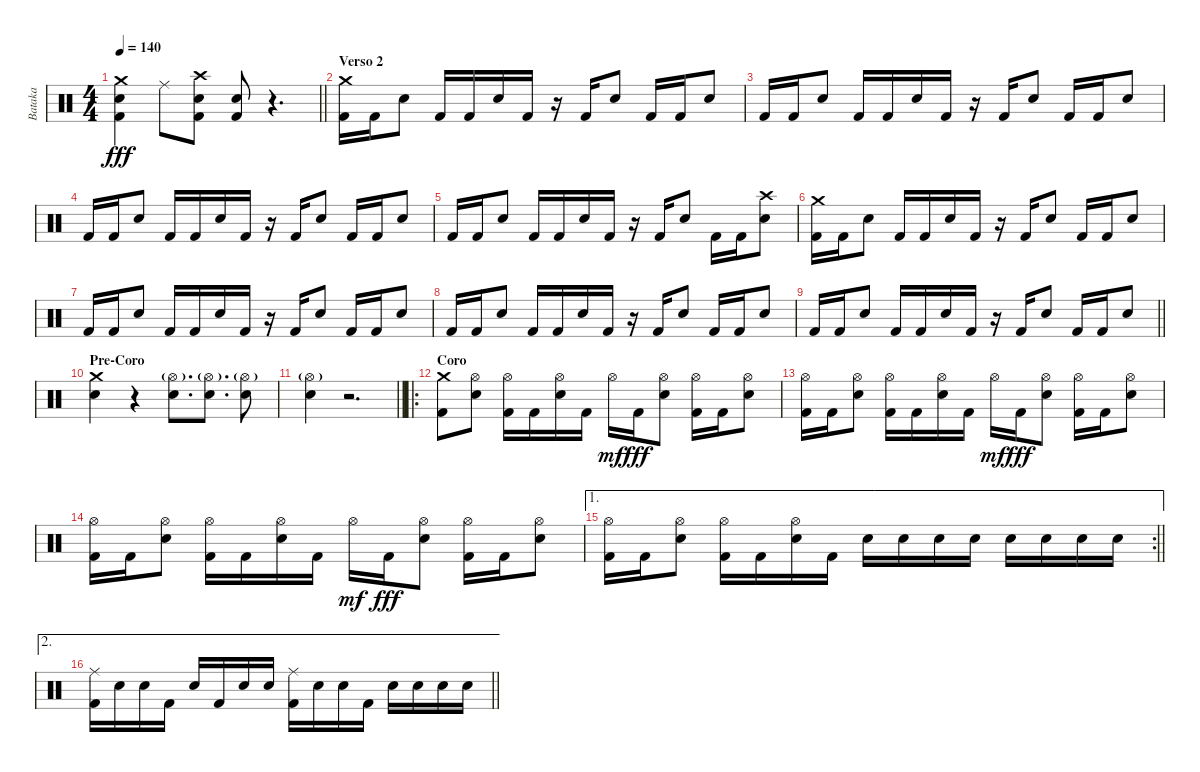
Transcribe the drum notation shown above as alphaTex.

\track ("Bataka" "Bataka") {instrument percussion}
\staff {score}
\articulation defaults
\ts (4 4)
\tempo 140
\clef neutral
\barLineRight lightlight
\ks c
("Crash medium (hit)" "Electric Snare (hit)" "Kick (hit) 2").4{dy fff} "Ride (middle)".8 ("Crash high (hit)" "Electric Snare (hit)" "Kick (hit) 2").8 ("Electric Snare (hit)" "Kick (hit) 2").8 r.4{d} |
\section ("" "Verso 2")
("Crash medium (hit)" "Kick (hit) 2").16 "Kick (hit) 2".16 "Electric Snare (hit)".8 "Kick (hit) 2".16 "Kick (hit) 2".16 "Electric Snare (hit)".16 "Kick (hit) 2".16 r.16 "Kick (hit) 2".16 "Electric Snare (hit)".8 "Kick (hit) 2".16 "Kick (hit) 2".16 "Electric Snare (hit)".8 |
"Kick (hit) 2".16 "Kick (hit) 2".16 "Electric Snare (hit)".8 "Kick (hit) 2".16 "Kick (hit) 2".16 "Electric Snare (hit)".16 "Kick (hit) 2".16 r.16 "Kick (hit) 2".16 "Electric Snare (hit)".8 "Kick (hit) 2".16 "Kick (hit) 2".16 "Electric Snare (hit)".8 |
"Kick (hit) 2".16 "Kick (hit) 2".16 "Electric Snare (hit)".8 "Kick (hit) 2".16 "Kick (hit) 2".16 "Electric Snare (hit)".16 "Kick (hit) 2".16 r.16 "Kick (hit) 2".16 "Electric Snare (hit)".8 "Kick (hit) 2".16 "Kick (hit) 2".16 "Electric Snare (hit)".8 |
"Kick (hit) 2".16 "Kick (hit) 2".16 "Electric Snare (hit)".8 "Kick (hit) 2".16 "Kick (hit) 2".16 "Electric Snare (hit)".16 "Kick (hit) 2".16 r.16 "Kick (hit) 2".16 "Electric Snare (hit)".8 "Kick (hit) 2".16 "Kick (hit) 2".16 ("Crash high (hit)" "Electric Snare (hit)").8 |
("Crash medium (hit)" "Kick (hit) 2").16 "Kick (hit) 2".16 "Electric Snare (hit)".8 "Kick (hit) 2".16 "Kick (hit) 2".16 "Electric Snare (hit)".16 "Kick (hit) 2".16 r.16 "Kick (hit) 2".16 "Electric Snare (hit)".8 "Kick (hit) 2".16 "Kick (hit) 2".16 "Electric Snare (hit)".8 |
"Kick (hit) 2".16 "Kick (hit) 2".16 "Electric Snare (hit)".8 "Kick (hit) 2".16 "Kick (hit) 2".16 "Electric Snare (hit)".16 "Kick (hit) 2".16 r.16 "Kick (hit) 2".16 "Electric Snare (hit)".8 "Kick (hit) 2".16 "Kick (hit) 2".16 "Electric Snare (hit)".8 |
"Kick (hit) 2".16 "Kick (hit) 2".16 "Electric Snare (hit)".8 "Kick (hit) 2".16 "Kick (hit) 2".16 "Electric Snare (hit)".16 "Kick (hit) 2".16 r.16 "Kick (hit) 2".16 "Electric Snare (hit)".8 "Kick (hit) 2".16 "Kick (hit) 2".16 "Electric Snare (hit)".8 |
\barLineRight lightlight "Kick (hit) 2".16 "Kick (hit) 2".16 "Electric Snare (hit)".8 "Kick (hit) 2".16 "Kick (hit) 2".16 "Electric Snare (hit)".16 "Kick (hit) 2".16
r.16 "Kick (hit) 2".16 "Electric Snare (hit)".8 "Kick (hit) 2".16 "Kick (hit) 2".16 "Electric Snare (hit)".8 |
\section ("" "Pre-Coro")
("Crash medium (hit)" "Electric Snare (hit)").4 r.4 ("Hi-Hat (open)"{g} "Electric Snare (hit)").8{d} ("Hi-Hat (open)"{g} "Electric Snare (hit)").8{d} ("Hi-Hat (open)"{g} "Electric Snare (hit)").8 |
\barLineRight lightlight
("Hi-Hat (open)"{g} "Electric Snare (hit)").4 r.2{d} |
\ro
\section ("" "Coro")
("Crash medium (hit)" "Kick (hit) 2").8 ("Hi-Hat (open)" "Electric Snare (hit)").8 ("Hi-Hat (open)" "Kick (hit) 2").16 "Kick (hit) 2".16 ("Hi-Hat (open)" "Electric Snare (hit)").16 "Kick (hit) 2".16 "Hi-Hat (open)".16{dy mf} "Kick (hit) 2".16{dy fff} ("Hi-Hat (open)" "Electric Snare (hit)").8 ("Hi-Hat (open)" "Kick (hit) 2").16 "Kick (hit) 2".16 ("Hi-Hat (open)" "Electric Snare (hit)").8 |
("Hi-Hat (open)" "Kick (hit) 2").16 "Kick (hit) 2".16 ("Hi-Hat (open)" "Electric Snare (hit)").8 ("Hi-Hat (open)" "Kick (hit) 2").16 "Kick (hit) 2".16 ("Hi-Hat (open)" "Electric Snare (hit)").16 "Kick (hit) 2".16 "Hi-Hat (open)".16{dy mf} "Kick (hit) 2".16{dy fff} ("Hi-Hat (open)" "Electric Snare (hit)").8 ("Hi-Hat (open)" "Kick (hit) 2").16 "Kick (hit) 2".16 ("Hi-Hat (open)" "Electric Snare (hit)").8 |
("Hi-Hat (open)" "Kick (hit) 2").16 "Kick (hit) 2".16 ("Hi-Hat (open)" "Electric Snare (hit)").8 ("Hi-Hat (open)" "Kick (hit) 2").16 "Kick (hit) 2".16 ("Hi-Hat (open)" "Electric Snare (hit)").16 "Kick (hit) 2".16 "Hi-Hat (open)".16{dy mf} "Kick (hit) 2".16{dy fff} ("Hi-Hat (open)" "Electric Snare (hit)").8 ("Hi-Hat (open)" "Kick (hit) 2").16 "Kick (hit) 2".16 ("Hi-Hat (open)" "Electric Snare (hit)").8 |
\ae 1
\rc 2
\barLineRight lightlight
("Hi-Hat (open)" "Kick (hit) 2").16 "Kick (hit) 2".16 ("Hi-Hat (open)" "Electric Snare (hit)").8 ("Hi-Hat (open)" "Kick (hit) 2").16 "Kick (hit) 2".16 ("Hi-Hat (open)" "Electric Snare (hit)").16 "Kick (hit) 2".16 "Electric Snare (hit)".16 "Electric Snare (hit)".16 "Electric Snare (hit)".16 "Electric Snare (hit)".16 "Electric Snare (hit)".16 "Electric Snare (hit)".16 "Electric Snare (hit)".16 "Electric Snare (hit)".16 |
\ae 2
\barLineRight lightlight
("Ride (middle)" "Kick (hit) 2").16 "Electric Snare (hit)".16 "Electric Snare (hit)".16 "Kick (hit) 2".16 "Electric Snare (hit)".16 "Kick (hit) 2".16 "Electric Snare (hit)".16 "Electric Snare (hit)".16 ("Ride (middle)" "Kick (hit) 2").16 "Electric Snare (hit)".16 "Electric Snare (hit)".16 "Kick (hit) 2".16 "Electric Snare (hit)".16 "Electric Snare (hit)".16 "Electric Snare (hit)".16 "Electric Snare (hit)".16
